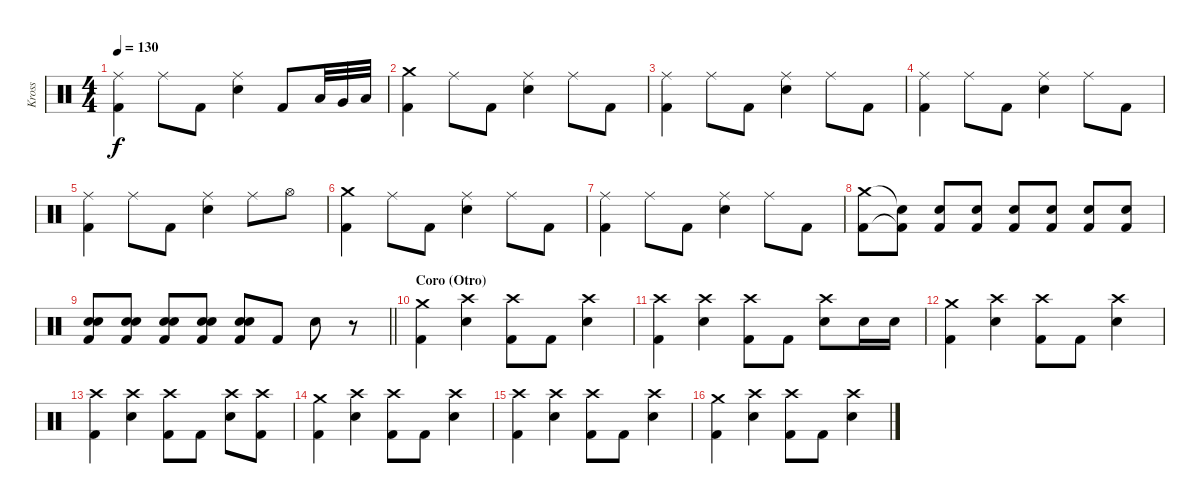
\track ("Kross" "Kross") {instrument percussion}
\staff {score}
\articulation defaults
\ts (4 4)
\tempo 130
\clef neutral
\ks c
("Ride (middle)" "Kick (hit) 2").4{dy f} "Ride (middle)".8 "Kick (hit) 2".8 ("Ride (middle)" "Electric Snare (hit)").4 "Kick (hit) 2".8 "Low Tom (hit)".32 "Very Low Tom (hit)".32 "Low Floor Tom (hit)".32 |
("Crash medium (hit)" "Kick (hit) 2").4 "Ride (middle)".8 "Kick (hit) 2".8 ("Ride (middle)" "Electric Snare (hit)").4 "Ride (middle)".8 "Kick (hit) 2".8 |
("Ride (middle)" "Kick (hit) 2").4 "Ride (middle)".8 "Kick (hit) 2".8 ("Ride (middle)" "Electric Snare (hit)").4 "Ride (middle)".8 "Kick (hit) 2".8 |
("Ride (middle)" "Kick (hit) 2").4 "Ride (middle)".8 "Kick (hit) 2".8 ("Ride (middle)" "Electric Snare (hit)").4 "Ride (middle)".8 "Kick (hit) 2".8 |
("Ride (middle)" "Kick (hit) 2").4 "Ride (middle)".8 "Kick (hit) 2".8 ("Ride (middle)" "Electric Snare (hit)").4 "Ride (middle)".8 "Hi-Hat (open)".8 |
("Crash medium (hit)" "Kick (hit) 2").4 "Ride (middle)".8 "Kick (hit) 2".8 ("Ride (middle)" "Electric Snare (hit)").4 "Ride (middle)".8 "Kick (hit) 2".8 |
("Ride (middle)" "Kick (hit) 2").4 "Ride (middle)".8 "Kick (hit) 2".8 ("Ride (middle)" "Electric Snare (hit)").4 "Ride (middle)".8 "Kick (hit) 2".8 |
("Crash medium (hit)" "Kick (hit) 2").8 ("Snare (hit)"{t} "Kick (hit) 2"{t}).8 ("Electric Snare (hit)" "Kick (hit) 2").8 ("Electric Snare (hit)" "Kick (hit) 2").8 ("Electric Snare (hit)" "Kick (hit) 2").8 ("Electric Snare (hit)" "Kick (hit) 2").8 ("Electric Snare (hit)" "Kick (hit) 2").8 ("Electric Snare (hit)" "Kick (hit) 2").8 |
\barLineRight lightlight
("Electric Snare (hit)" "Electric Snare (hit)" "Kick (hit) 2").8 ("Electric Snare (hit)" "Electric Snare (hit)" "Kick (hit) 2").8 ("Electric Snare (hit)" "Electric Snare (hit)" "Kick (hit) 2").8 ("Electric Snare (hit)" "Electric Snare (hit)" "Kick (hit) 2").8 ("Electric Snare (hit)" "Electric Snare (hit)" "Kick (hit) 2").8 "Kick (hit) 2".8 "Electric Snare (hit)".8 r.8 |
\section ("" "Coro (Otro)")
("Crash medium (hit)" "Kick (hit) 2").4 ("Crash high (hit)" "Electric Snare (hit)").4 ("Crash high (hit)" "Kick (hit) 2").8 "Kick (hit) 2".8 ("Crash high (hit)" "Electric Snare (hit)").4 |
("Crash high (hit)" "Kick (hit) 2").4 ("Crash high (hit)" "Electric Snare (hit)").4 ("Crash high (hit)" "Kick (hit) 2").8 "Kick (hit) 2".8 ("Crash high (hit)" "Electric Snare (hit)").8 "Electric Snare (hit)".16 "Electric Snare (hit)".16 |
("Crash medium (hit)" "Kick (hit) 2").4 ("Crash high (hit)" "Electric Snare (hit)").4 ("Crash high (hit)" "Kick (hit) 2").8 "Kick (hit) 2".8 ("Crash high (hit)" "Electric Snare (hit)").4 |
("Crash high (hit)" "Kick (hit) 2").4 ("Crash high (hit)" "Electric Snare (hit)").4 ("Crash high (hit)" "Kick (hit) 2").8 "Kick (hit) 2".8 ("Crash high (hit)" "Electric Snare (hit)").8 ("Crash high (hit)" "Kick (hit) 2").8 |
("Crash medium (hit)" "Kick (hit) 2").4 ("Crash high (hit)" "Electric Snare (hit)").4 ("Crash high (hit)" "Kick (hit) 2").8 "Kick (hit) 2".8 ("Crash high (hit)" "Electric Snare (hit)").4 |
("Crash high (hit)" "Kick (hit) 2").4 ("Crash high (hit)" "Electric Snare (hit)").4 ("Crash high (hit)" "Kick (hit) 2").8 "Kick (hit) 2".8 ("Crash high (hit)" "Electric Snare (hit)").4 |
("Crash medium (hit)" "Kick (hit) 2").4 ("Crash high (hit)" "Electric Snare (hit)").4 ("Crash high (hit)" "Kick (hit) 2").8 "Kick (hit) 2".8 ("Crash high (hit)" "Electric Snare (hit)").4
